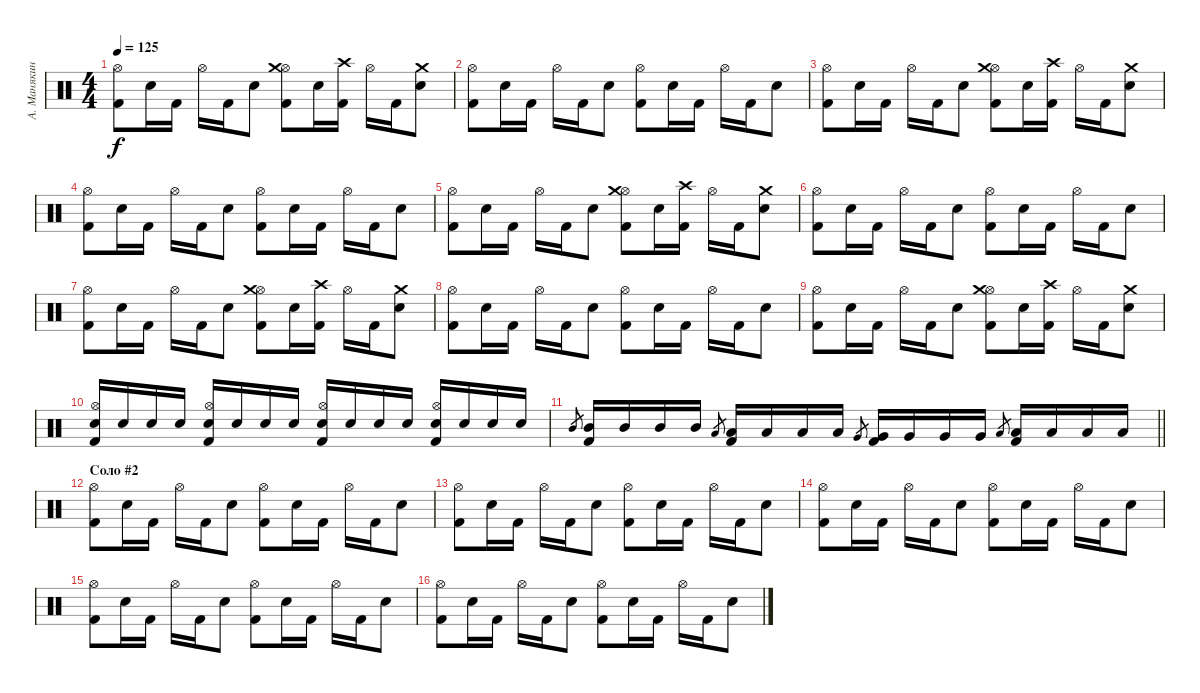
\track ("А. Манякин" "А. Манякин") {instrument percussion}
\staff {score}
\articulation defaults
\ts (4 4)
\tempo 125
\clef neutral
\ks c
("Kick (hit) 2" "Hi-Hat (open)").8{dy f} "Electric Snare (hit)".16 "Kick (hit) 2".16 "Hi-Hat (open)".16 "Kick (hit) 2".16 "Electric Snare (hit)".8 ("Kick (hit) 2" "Hi-Hat (open)" "Crash medium (hit)").8 "Electric Snare (hit)".16 ("Kick (hit) 2" "Crash high (hit)").16 "Hi-Hat (open)".16 "Kick (hit) 2".16 ("Electric Snare (hit)" "Crash medium (hit)").8 |
("Kick (hit) 2" "Hi-Hat (open)").8 "Electric Snare (hit)".16 "Kick (hit) 2".16 "Hi-Hat (open)".16 "Kick (hit) 2".16 "Electric Snare (hit)".8 ("Kick (hit) 2" "Hi-Hat (open)").8 "Electric Snare (hit)".16 "Kick (hit) 2".16 "Hi-Hat (open)".16 "Kick (hit) 2".16 "Electric Snare (hit)".8 |
("Kick (hit) 2" "Hi-Hat (open)").8 "Electric Snare (hit)".16 "Kick (hit) 2".16 "Hi-Hat (open)".16 "Kick (hit) 2".16 "Electric Snare (hit)".8 ("Kick (hit) 2" "Hi-Hat (open)" "Crash medium (hit)").8 "Electric Snare (hit)".16 ("Kick (hit) 2" "Crash high (hit)").16 "Hi-Hat (open)".16 "Kick (hit) 2".16 ("Electric Snare (hit)" "Crash medium (hit)").8 |
("Kick (hit) 2" "Hi-Hat (open)").8 "Electric Snare (hit)".16 "Kick (hit) 2".16 "Hi-Hat (open)".16 "Kick (hit) 2".16 "Electric Snare (hit)".8 ("Kick (hit) 2" "Hi-Hat (open)").8 "Electric Snare (hit)".16 "Kick (hit) 2".16 "Hi-Hat (open)".16 "Kick (hit) 2".16 "Electric Snare (hit)".8 |
("Kick (hit) 2" "Hi-Hat (open)").8 "Electric Snare (hit)".16 "Kick (hit) 2".16 "Hi-Hat (open)".16 "Kick (hit) 2".16 "Electric Snare (hit)".8 ("Kick (hit) 2" "Hi-Hat (open)" "Crash medium (hit)").8 "Electric Snare (hit)".16 ("Kick (hit) 2" "Crash high (hit)").16 "Hi-Hat (open)".16 "Kick (hit) 2".16 ("Electric Snare (hit)" "Crash medium (hit)").8 |
("Kick (hit) 2" "Hi-Hat (open)").8 "Electric Snare (hit)".16 "Kick (hit) 2".16 "Hi-Hat (open)".16 "Kick (hit) 2".16 "Electric Snare (hit)".8 ("Kick (hit) 2" "Hi-Hat (open)").8 "Electric Snare (hit)".16 "Kick (hit) 2".16 "Hi-Hat (open)".16 "Kick (hit) 2".16 "Electric Snare (hit)".8 |
("Kick (hit) 2" "Hi-Hat (open)").8 "Electric Snare (hit)".16 "Kick (hit) 2".16 "Hi-Hat (open)".16 "Kick (hit) 2".16 "Electric Snare (hit)".8 ("Kick (hit) 2" "Hi-Hat (open)" "Crash medium (hit)").8 "Electric Snare (hit)".16 ("Kick (hit) 2" "Crash high (hit)").16 "Hi-Hat (open)".16 "Kick (hit) 2".16 ("Electric Snare (hit)" "Crash medium (hit)").8 |
("Kick (hit) 2" "Hi-Hat (open)").8 "Electric Snare (hit)".16 "Kick (hit) 2".16 "Hi-Hat (open)".16 "Kick (hit) 2".16 "Electric Snare (hit)".8 ("Kick (hit) 2" "Hi-Hat (open)").8 "Electric Snare (hit)".16 "Kick (hit) 2".16 "Hi-Hat (open)".16 "Kick (hit) 2".16 "Electric Snare (hit)".8 |
("Kick (hit) 2" "Hi-Hat (open)").8 "Electric Snare (hit)".16 "Kick (hit) 2".16 "Hi-Hat (open)".16 "Kick (hit) 2".16 "Electric Snare (hit)".8 ("Kick (hit) 2" "Hi-Hat (open)" "Crash medium (hit)").8 "Electric Snare (hit)".16 ("Kick (hit) 2" "Crash high (hit)").16 "Hi-Hat (open)".16 "Kick (hit) 2".16 ("Electric Snare (hit)" "Crash medium (hit)").8 |
("Kick (hit) 2" "Electric Snare (hit)" "Hi-Hat (open)").16 "Electric Snare (hit)".16 "Electric Snare (hit)".16 "Electric Snare (hit)".16 ("Kick (hit) 2" "Electric Snare (hit)" "Hi-Hat (open)").16 "Electric Snare (hit)".16 "Electric Snare (hit)".16 "Electric Snare (hit)".16 ("Kick (hit) 2" "Electric Snare (hit)" "Hi-Hat (open)").16 "Electric Snare (hit)".16 "Electric Snare (hit)".16 "Electric Snare (hit)".16 ("Kick (hit) 2" "Electric Snare (hit)" "Hi-Hat (open)").16 "Electric Snare (hit)".16 "Electric Snare (hit)".16 "Electric Snare (hit)".16 |
\barLineRight lightlight "Mid Tom (hit)".8{gr}
("Kick (hit) 2" "Mid Tom (hit)").16 "Mid Tom (hit)".16 "Mid Tom (hit)".16 "Mid Tom (hit)".16 "Low Tom (hit)".8{gr} ("Kick (hit) 2" "Low Tom (hit)").16 "Low Tom (hit)".16 "Low Tom (hit)".16 "Low Tom (hit)".16 "Very Low Tom (hit)".8{gr} ("Kick (hit) 2" "Very Low Tom (hit)").16 "Very Low Tom (hit)".16 "Very Low Tom (hit)".16 "Very Low Tom (hit)".16 "Low Floor Tom (hit)".8{gr} ("Kick (hit) 2" "Low Floor Tom (hit)").16 "Low Floor Tom (hit)".16 "Low Floor Tom (hit)".16 "Low Floor Tom (hit)".16 |
\section ("" "Соло #2")
("Kick (hit) 2" "Hi-Hat (open)").8 "Electric Snare (hit)".16 "Kick (hit) 2".16 "Hi-Hat (open)".16 "Kick (hit) 2".16 "Electric Snare (hit)".8 ("Kick (hit) 2" "Hi-Hat (open)").8 "Electric Snare (hit)".16 "Kick (hit) 2".16 "Hi-Hat (open)".16 "Kick (hit) 2".16 "Electric Snare (hit)".8 |
("Kick (hit) 2" "Hi-Hat (open)").8 "Electric Snare (hit)".16 "Kick (hit) 2".16 "Hi-Hat (open)".16 "Kick (hit) 2".16 "Electric Snare (hit)".8 ("Kick (hit) 2" "Hi-Hat (open)").8 "Electric Snare (hit)".16 "Kick (hit) 2".16 "Hi-Hat (open)".16 "Kick (hit) 2".16 "Electric Snare (hit)".8 |
("Kick (hit) 2" "Hi-Hat (open)").8 "Electric Snare (hit)".16 "Kick (hit) 2".16 "Hi-Hat (open)".16 "Kick (hit) 2".16 "Electric Snare (hit)".8 ("Kick (hit) 2" "Hi-Hat (open)").8 "Electric Snare (hit)".16 "Kick (hit) 2".16 "Hi-Hat (open)".16 "Kick (hit) 2".16 "Electric Snare (hit)".8 |
("Kick (hit) 2" "Hi-Hat (open)").8 "Electric Snare (hit)".16 "Kick (hit) 2".16 "Hi-Hat (open)".16 "Kick (hit) 2".16 "Electric Snare (hit)".8 ("Kick (hit) 2" "Hi-Hat (open)").8 "Electric Snare (hit)".16 "Kick (hit) 2".16 "Hi-Hat (open)".16 "Kick (hit) 2".16 "Electric Snare (hit)".8 |
("Kick (hit) 2" "Hi-Hat (open)").8 "Electric Snare (hit)".16 "Kick (hit) 2".16 "Hi-Hat (open)".16 "Kick (hit) 2".16 "Electric Snare (hit)".8 ("Kick (hit) 2" "Hi-Hat (open)").8 "Electric Snare (hit)".16 "Kick (hit) 2".16 "Hi-Hat (open)".16 "Kick (hit) 2".16 "Electric Snare (hit)".8
